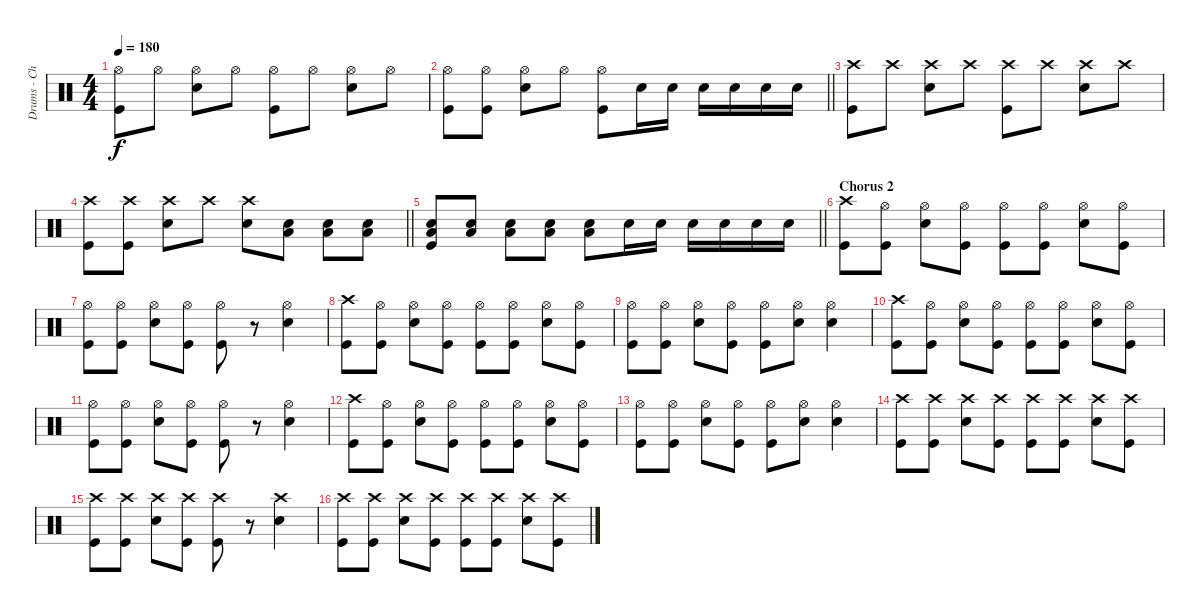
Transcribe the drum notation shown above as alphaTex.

\track ("Drums - Chris Dangerous" "Drums - Ch") {instrument percussion}
\staff {score}
\articulation defaults
\ts (4 4)
\tempo 180
\clef neutral
\ks c
("Hi-Hat (open)" "Kick (hit)").8{dy f} "Hi-Hat (open)".8 ("Hi-Hat (open)" "Snare (hit) 2").8 "Hi-Hat (open)".8 ("Hi-Hat (open)" "Kick (hit)").8 "Hi-Hat (open)".8 ("Hi-Hat (open)" "Snare (hit) 2").8 "Hi-Hat (open)".8 |
\barLineRight lightlight
("Hi-Hat (open)" "Kick (hit)").8 ("Hi-Hat (open)" "Kick (hit)").8 ("Hi-Hat (open)" "Snare (hit) 2").8 "Hi-Hat (open)".8 ("Hi-Hat (open)" "Kick (hit)").8 "Snare (hit) 2".16 "Snare (hit) 2".16 "Snare (hit) 2".16 "Snare (hit) 2".16 "Snare (hit) 2".16 "Snare (hit) 2".16 |
\section ("" "")
("Crash high (hit)" "Kick (hit)").8 "Crash high (hit)".8 ("Crash high (hit)" "Snare (hit) 2").8 "Crash high (hit)".8 ("Crash high (hit)" "Kick (hit)").8 "Crash high (hit)".8 ("Crash high (hit)" "Snare (hit) 2").8 "Crash high (hit)".8 |
\barLineRight lightlight
("Crash high (hit)" "Kick (hit)").8 ("Crash high (hit)" "Kick (hit)").8 ("Crash high (hit)" "Snare (hit) 2").8 "Crash high (hit)".8 ("Crash high (hit)" "Snare (hit) 2").8 ("Low Floor Tom (hit)" "Snare (hit) 2").8 ("Low Floor Tom (hit)" "Snare (hit) 2").8 ("Low Floor Tom (hit)" "Snare (hit) 2").8 |
\barLineRight lightlight
("Low Floor Tom (hit)" "Snare (hit) 2" "Kick (hit)").8 ("Low Floor Tom (hit)" "Snare (hit) 2").8 ("Low Floor Tom (hit)" "Snare (hit) 2").8 ("Low Floor Tom (hit)" "Snare (hit) 2").8 ("Low Floor Tom (hit)" "Snare (hit) 2").8 "Snare (hit) 2".16 "Snare (hit) 2".16 "Snare (hit) 2".16 "Snare (hit) 2".16 "Snare (hit) 2".16 "Snare (hit) 2".16 |
\section ("" "Chorus 2")
("Crash high (hit)" "Kick (hit)").8 ("Hi-Hat (open)" "Kick (hit)").8 ("Hi-Hat (open)" "Snare (hit) 2").8 ("Hi-Hat (open)" "Kick (hit)").8 ("Hi-Hat (open)" "Kick (hit)").8 ("Hi-Hat (open)" "Kick (hit)").8 ("Hi-Hat (open)" "Snare (hit) 2").8 ("Hi-Hat (open)" "Kick (hit)").8 |
("Hi-Hat (open)" "Kick (hit)").8 ("Hi-Hat (open)" "Kick (hit)").8 ("Hi-Hat (open)" "Snare (hit) 2").8 ("Hi-Hat (open)" "Kick (hit)").8 ("Hi-Hat (open)" "Kick (hit)").8 r.8 ("Hi-Hat (open)" "Snare (hit) 2").4 |
("Crash high (hit)" "Kick (hit)").8 ("Hi-Hat (open)" "Kick (hit)").8 ("Hi-Hat (open)" "Snare (hit) 2").8 ("Hi-Hat (open)" "Kick (hit)").8 ("Hi-Hat (open)" "Kick (hit)").8 ("Hi-Hat (open)" "Kick (hit)").8 ("Hi-Hat (open)" "Snare (hit) 2").8 ("Hi-Hat (open)" "Kick (hit)").8 |
("Hi-Hat (open)" "Kick (hit)").8 ("Hi-Hat (open)" "Kick (hit)").8 ("Hi-Hat (open)" "Snare (hit) 2").8 ("Hi-Hat (open)" "Kick (hit)").8 ("Hi-Hat (open)" "Kick (hit)").8 ("Hi-Hat (open)" "Snare (hit) 2").8 ("Hi-Hat (open)" "Snare (hit) 2").4 |
("Crash high (hit)" "Kick (hit)").8 ("Hi-Hat (open)" "Kick (hit)").8 ("Hi-Hat (open)" "Snare (hit) 2").8 ("Hi-Hat (open)" "Kick (hit)").8 ("Hi-Hat (open)" "Kick (hit)").8 ("Hi-Hat (open)" "Kick (hit)").8 ("Hi-Hat (open)" "Snare (hit) 2").8 ("Hi-Hat (open)" "Kick (hit)").8 |
("Hi-Hat (open)" "Kick (hit)").8 ("Hi-Hat (open)" "Kick (hit)").8 ("Hi-Hat (open)" "Snare (hit) 2").8 ("Hi-Hat (open)" "Kick (hit)").8 ("Hi-Hat (open)" "Kick (hit)").8 r.8 ("Hi-Hat (open)" "Snare (hit) 2").4 |
("Crash high (hit)" "Kick (hit)").8 ("Hi-Hat (open)" "Kick (hit)").8 ("Hi-Hat (open)" "Snare (hit) 2").8 ("Hi-Hat (open)" "Kick (hit)").8 ("Hi-Hat (open)" "Kick (hit)").8 ("Hi-Hat (open)" "Kick (hit)").8 ("Hi-Hat (open)" "Snare (hit) 2").8 ("Hi-Hat (open)" "Kick (hit)").8 |
("Hi-Hat (open)" "Kick (hit)").8 ("Hi-Hat (open)" "Kick (hit)").8 ("Hi-Hat (open)" "Snare (hit) 2").8 ("Hi-Hat (open)" "Kick (hit)").8 ("Hi-Hat (open)" "Kick (hit)").8 ("Hi-Hat (open)" "Snare (hit) 2").8 ("Hi-Hat (open)" "Snare (hit) 2").4 |
("Crash high (hit)" "Kick (hit)").8 ("Crash high (hit)" "Kick (hit)").8 ("Crash high (hit)" "Snare (hit) 2").8 ("Crash high (hit)" "Kick (hit)").8 ("Crash high (hit)" "Kick (hit)").8 ("Crash high (hit)" "Kick (hit)").8 ("Crash high (hit)" "Snare (hit) 2").8 ("Crash high (hit)" "Kick (hit)").8 |
("Crash high (hit)" "Kick (hit)").8 ("Crash high (hit)" "Kick (hit)").8 ("Crash high (hit)" "Snare (hit) 2").8 ("Crash high (hit)" "Kick (hit)").8 ("Crash high (hit)" "Kick (hit)").8 r.8 ("Crash high (hit)" "Snare (hit) 2").4 |
("Crash high (hit)" "Kick (hit)").8 ("Crash high (hit)" "Kick (hit)").8 ("Crash high (hit)" "Snare (hit) 2").8 ("Crash high (hit)" "Kick (hit)").8 ("Crash high (hit)" "Kick (hit)").8 ("Crash high (hit)" "Kick (hit)").8 ("Crash high (hit)" "Snare (hit) 2").8 ("Crash high (hit)" "Kick (hit)").8
